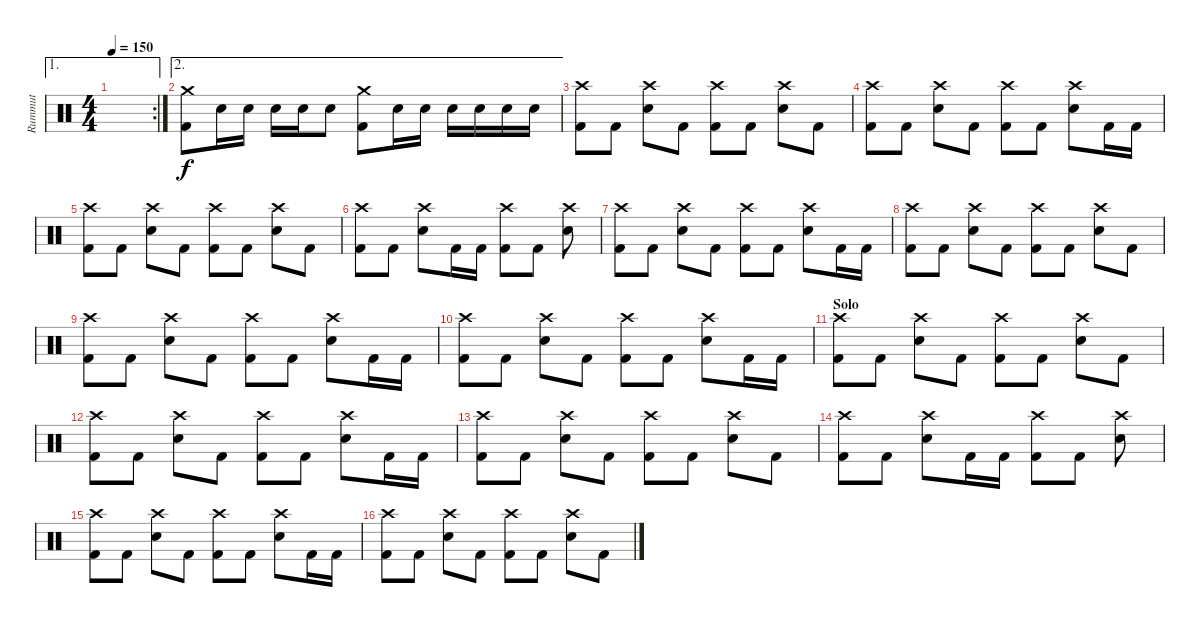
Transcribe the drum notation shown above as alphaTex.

\track ("Rummut" "Rummut") {instrument percussion}
\staff {score}
\articulation defaults
\ae 1
\rc 2
\ts (4 4)
\tempo 150
\clef neutral
\ks c
|
\ae 2
("Crash medium (hit)" "Kick (hit) 2").8 "Snare (hit) 2".16 "Snare (hit) 2".16 "Snare (hit) 2".16 "Snare (hit) 2".16 "Snare (hit) 2".8 ("Crash medium (hit)" "Kick (hit) 2").8 "Snare (hit) 2".16 "Snare (hit) 2".16 "Snare (hit) 2".16 "Snare (hit) 2".16 "Snare (hit) 2".16 "Snare (hit) 2".16 |
("Crash high (hit)" "Kick (hit) 2").8 "Kick (hit) 2".8 ("Crash high (hit)" "Snare (hit) 2").8 "Kick (hit) 2".8 ("Crash high (hit)" "Kick (hit) 2").8 "Kick (hit) 2".8 ("Crash high (hit)" "Snare (hit) 2").8 "Kick (hit) 2".8 |
("Crash high (hit)" "Kick (hit) 2").8 "Kick (hit) 2".8 ("Crash high (hit)" "Snare (hit) 2").8 "Kick (hit) 2".8 ("Crash high (hit)" "Kick (hit) 2").8 "Kick (hit) 2".8 ("Crash high (hit)" "Snare (hit) 2").8 "Kick (hit) 2".16 "Kick (hit) 2".16 |
("Crash high (hit)" "Kick (hit) 2").8 "Kick (hit) 2".8 ("Crash high (hit)" "Snare (hit) 2").8 "Kick (hit) 2".8 ("Crash high (hit)" "Kick (hit) 2").8 "Kick (hit) 2".8 ("Crash high (hit)" "Snare (hit) 2").8 "Kick (hit) 2".8 |
("Crash high (hit)" "Kick (hit) 2").8 "Kick (hit) 2".8 ("Crash high (hit)" "Snare (hit) 2").8 "Kick (hit) 2".16 "Kick (hit) 2".16 ("Crash high (hit)" "Kick (hit) 2").8 "Kick (hit) 2".8 ("Crash high (hit)" "Snare (hit) 2").8 |
("Crash high (hit)" "Kick (hit) 2").8 "Kick (hit) 2".8 ("Crash high (hit)" "Snare (hit) 2").8 "Kick (hit) 2".8 ("Crash high (hit)" "Kick (hit) 2").8 "Kick (hit) 2".8 ("Crash high (hit)" "Snare (hit) 2").8 "Kick (hit) 2".16 "Kick (hit) 2".16 |
("Crash high (hit)" "Kick (hit) 2").8 "Kick (hit) 2".8 ("Crash high (hit)" "Snare (hit) 2").8 "Kick (hit) 2".8 ("Crash high (hit)" "Kick (hit) 2").8 "Kick (hit) 2".8 ("Crash high (hit)" "Snare (hit) 2").8 "Kick (hit) 2".8 |
("Crash high (hit)" "Kick (hit) 2").8 "Kick (hit) 2".8 ("Crash high (hit)" "Snare (hit) 2").8 "Kick (hit) 2".8 ("Crash high (hit)" "Kick (hit) 2").8 "Kick (hit) 2".8 ("Crash high (hit)" "Snare (hit) 2").8 "Kick (hit) 2".16 "Kick (hit) 2".16 |
("Crash high (hit)" "Kick (hit) 2").8 "Kick (hit) 2".8 ("Crash high (hit)" "Snare (hit) 2").8 "Kick (hit) 2".8 ("Crash high (hit)" "Kick (hit) 2").8 "Kick (hit) 2".8 ("Crash high (hit)" "Snare (hit) 2").8 "Kick (hit) 2".16 "Kick (hit) 2".16 |
\section ("" "Solo")
("Crash high (hit)" "Kick (hit) 2").8 "Kick (hit) 2".8 ("Crash high (hit)" "Snare (hit) 2").8 "Kick (hit) 2".8 ("Crash high (hit)" "Kick (hit) 2").8 "Kick (hit) 2".8 ("Crash high (hit)" "Snare (hit) 2").8 "Kick (hit) 2".8 |
("Crash high (hit)" "Kick (hit) 2").8 "Kick (hit) 2".8 ("Crash high (hit)" "Snare (hit) 2").8 "Kick (hit) 2".8 ("Crash high (hit)" "Kick (hit) 2").8 "Kick (hit) 2".8 ("Crash high (hit)" "Snare (hit) 2").8 "Kick (hit) 2".16 "Kick (hit) 2".16 |
("Crash high (hit)" "Kick (hit) 2").8 "Kick (hit) 2".8 ("Crash high (hit)" "Snare (hit) 2").8 "Kick (hit) 2".8 ("Crash high (hit)" "Kick (hit) 2").8 "Kick (hit) 2".8 ("Crash high (hit)" "Snare (hit) 2").8 "Kick (hit) 2".8 |
("Crash high (hit)" "Kick (hit) 2").8 "Kick (hit) 2".8 ("Crash high (hit)" "Snare (hit) 2").8 "Kick (hit) 2".16 "Kick (hit) 2".16 ("Crash high (hit)" "Kick (hit) 2").8 "Kick (hit) 2".8 ("Crash high (hit)" "Snare (hit) 2").8 |
("Crash high (hit)" "Kick (hit) 2").8 "Kick (hit) 2".8 ("Crash high (hit)" "Snare (hit) 2").8 "Kick (hit) 2".8 ("Crash high (hit)" "Kick (hit) 2").8 "Kick (hit) 2".8 ("Crash high (hit)" "Snare (hit) 2").8 "Kick (hit) 2".16 "Kick (hit) 2".16 |
("Crash high (hit)" "Kick (hit) 2").8 "Kick (hit) 2".8 ("Crash high (hit)" "Snare (hit) 2").8 "Kick (hit) 2".8 ("Crash high (hit)" "Kick (hit) 2").8 "Kick (hit) 2".8 ("Crash high (hit)" "Snare (hit) 2").8 "Kick (hit) 2".8
